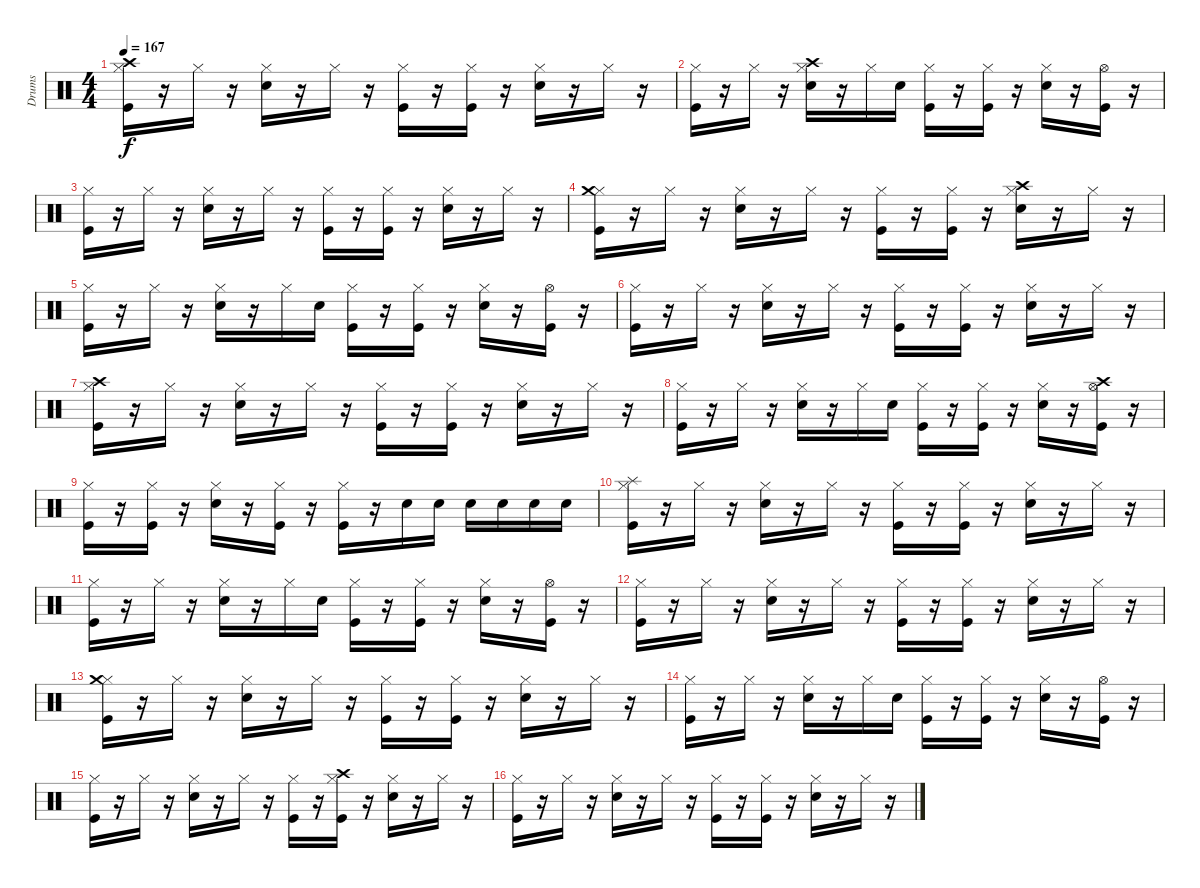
\track ("Drums" "Drums") {instrument percussion}
\staff {score}
\articulation defaults
\ts (4 4)
\tempo 167
\clef neutral
\ks c
("Kick (hit)" "Hi-Hat (closed)" "Crash high (hit)").16{dy f} r.16 "Hi-Hat (closed)".16 r.16 ("Snare (hit) 2" "Hi-Hat (closed)").16 r.16 "Hi-Hat (closed)".16 r.16 ("Kick (hit)" "Hi-Hat (closed)").16 r.16 ("Kick (hit)" "Hi-Hat (closed)").16 r.16 ("Snare (hit) 2" "Hi-Hat (closed)").16 r.16 "Hi-Hat (closed)".16 r.16 |
("Kick (hit)" "Hi-Hat (closed)").16 r.16 "Hi-Hat (closed)".16 r.16 ("Crash high (hit)" "Snare (hit) 2" "Hi-Hat (closed)").16 r.16 "Hi-Hat (closed)".16 "Snare (hit) 2".16 ("Kick (hit)" "Hi-Hat (closed)").16 r.16 ("Kick (hit)" "Hi-Hat (closed)").16 r.16 ("Snare (hit) 2" "Hi-Hat (closed)").16 r.16 ("Kick (hit)" "Hi-Hat (open)").16 r.16 |
("Kick (hit)" "Hi-Hat (closed)").16 r.16 "Hi-Hat (closed)".16 r.16 ("Snare (hit) 2" "Hi-Hat (closed)").16 r.16 "Hi-Hat (closed)".16 r.16 ("Kick (hit)" "Hi-Hat (closed)").16 r.16 ("Kick (hit)" "Hi-Hat (closed)").16 r.16 ("Snare (hit) 2" "Hi-Hat (closed)").16 r.16 "Hi-Hat (closed)".16 r.16 |
("Kick (hit)" "Hi-Hat (closed)" "Crash medium (hit)").16 r.16 "Hi-Hat (closed)".16 r.16 ("Snare (hit) 2" "Hi-Hat (closed)").16 r.16 "Hi-Hat (closed)".16 r.16 ("Kick (hit)" "Hi-Hat (closed)").16 r.16 ("Kick (hit)" "Hi-Hat (closed)").16 r.16 ("Crash high (hit)" "Snare (hit) 2" "Hi-Hat (closed)").16 r.16 "Hi-Hat (closed)".16 r.16 |
("Kick (hit)" "Hi-Hat (closed)").16 r.16 "Hi-Hat (closed)".16 r.16 ("Snare (hit) 2" "Hi-Hat (closed)").16 r.16 "Hi-Hat (closed)".16 "Snare (hit) 2".16 ("Kick (hit)" "Hi-Hat (closed)").16 r.16 ("Kick (hit)" "Hi-Hat (closed)").16 r.16 ("Snare (hit) 2" "Hi-Hat (closed)").16 r.16 ("Kick (hit)" "Hi-Hat (open)").16 r.16 |
("Kick (hit)" "Hi-Hat (closed)").16 r.16 "Hi-Hat (closed)".16 r.16 ("Snare (hit) 2" "Hi-Hat (closed)").16 r.16 "Hi-Hat (closed)".16 r.16 ("Kick (hit)" "Hi-Hat (closed)").16 r.16 ("Kick (hit)" "Hi-Hat (closed)").16 r.16 ("Snare (hit) 2" "Hi-Hat (closed)").16 r.16 "Hi-Hat (closed)".16 r.16 |
("Kick (hit)" "Hi-Hat (closed)" "Crash high (hit)").16 r.16 "Hi-Hat (closed)".16 r.16 ("Snare (hit) 2" "Hi-Hat (closed)").16 r.16 "Hi-Hat (closed)".16 r.16 ("Kick (hit)" "Hi-Hat (closed)").16 r.16 ("Kick (hit)" "Hi-Hat (closed)").16 r.16 ("Snare (hit) 2" "Hi-Hat (closed)").16 r.16 "Hi-Hat (closed)".16 r.16 |
("Kick (hit)" "Hi-Hat (closed)").16 r.16 "Hi-Hat (closed)".16 r.16 ("Snare (hit) 2" "Hi-Hat (closed)").16 r.16 "Hi-Hat (closed)".16 "Snare (hit) 2".16 ("Kick (hit)" "Hi-Hat (closed)").16 r.16 ("Kick (hit)" "Hi-Hat (closed)").16 r.16 ("Snare (hit) 2" "Hi-Hat (closed)").16 r.16 ("Kick (hit)" "Crash high (hit)" "Hi-Hat (open)").16 r.16 |
("Kick (hit)" "Hi-Hat (closed)").16 r.16 ("Kick (hit)" "Hi-Hat (closed)").16 r.16 ("Snare (hit) 2" "Hi-Hat (closed)").16 r.16 ("Kick (hit)" "Hi-Hat (closed)").16 r.16 ("Kick (hit)" "Hi-Hat (closed)").16 r.16 "Snare (hit) 2".16 "Snare (hit) 2".16 "Snare (hit) 2".16 "Snare (hit) 2".16 "Snare (hit) 2".16 "Snare (hit) 2".16 |
("Kick (hit)" "Hi-Hat (closed)" "Splash (hit)").16 r.16 "Hi-Hat (closed)".16 r.16 ("Snare (hit) 2" "Hi-Hat (closed)").16 r.16 "Hi-Hat (closed)".16 r.16 ("Kick (hit)" "Hi-Hat (closed)").16 r.16 ("Kick (hit)" "Hi-Hat (closed)").16 r.16 ("Snare (hit) 2" "Hi-Hat (closed)").16 r.16 "Hi-Hat (closed)".16 r.16 |
("Kick (hit)" "Hi-Hat (closed)").16 r.16 "Hi-Hat (closed)".16 r.16 ("Snare (hit) 2" "Hi-Hat (closed)").16 r.16 "Hi-Hat (closed)".16 "Snare (hit) 2".16 ("Kick (hit)" "Hi-Hat (closed)").16 r.16 ("Kick (hit)" "Hi-Hat (closed)").16 r.16 ("Snare (hit) 2" "Hi-Hat (closed)").16 r.16 ("Kick (hit)" "Hi-Hat (open)").16 r.16 |
("Kick (hit)" "Hi-Hat (closed)").16 r.16 "Hi-Hat (closed)".16 r.16 ("Snare (hit) 2" "Hi-Hat (closed)").16 r.16 "Hi-Hat (closed)".16 r.16 ("Kick (hit)" "Hi-Hat (closed)").16 r.16 ("Kick (hit)" "Hi-Hat (closed)").16 r.16 ("Snare (hit) 2" "Hi-Hat (closed)").16 r.16 "Hi-Hat (closed)".16 r.16 |
("Kick (hit)" "Hi-Hat (closed)" "Crash medium (hit)").16 r.16 "Hi-Hat (closed)".16 r.16 ("Snare (hit) 2" "Hi-Hat (closed)").16 r.16 "Hi-Hat (closed)".16 r.16 ("Kick (hit)" "Hi-Hat (closed)").16 r.16 ("Kick (hit)" "Hi-Hat (closed)").16 r.16 ("Snare (hit) 2" "Hi-Hat (closed)").16 r.16 "Hi-Hat (closed)".16 r.16 |
("Kick (hit)" "Hi-Hat (closed)").16 r.16 "Hi-Hat (closed)".16 r.16 ("Snare (hit) 2" "Hi-Hat (closed)").16 r.16 "Hi-Hat (closed)".16 "Snare (hit) 2".16 ("Kick (hit)" "Hi-Hat (closed)").16 r.16 ("Kick (hit)" "Hi-Hat (closed)").16 r.16 ("Snare (hit) 2" "Hi-Hat (closed)").16 r.16 ("Kick (hit)" "Hi-Hat (open)").16 r.16 |
("Kick (hit)" "Hi-Hat (closed)").16 r.16 "Hi-Hat (closed)".16 r.16 ("Snare (hit) 2" "Hi-Hat (closed)").16 r.16 "Hi-Hat (closed)".16 r.16 ("Kick (hit)" "Hi-Hat (closed)").16 r.16 ("Crash high (hit)" "Kick (hit)" "Hi-Hat (closed)").16 r.16 ("Snare (hit) 2" "Hi-Hat (closed)").16 r.16 "Hi-Hat (closed)".16 r.16 |
("Kick (hit)" "Hi-Hat (closed)").16 r.16 "Hi-Hat (closed)".16 r.16 ("Snare (hit) 2" "Hi-Hat (closed)").16 r.16 "Hi-Hat (closed)".16 r.16 ("Kick (hit)" "Hi-Hat (closed)").16 r.16 ("Kick (hit)" "Hi-Hat (closed)").16 r.16 ("Snare (hit) 2" "Hi-Hat (closed)").16 r.16 "Hi-Hat (closed)".16 r.16
